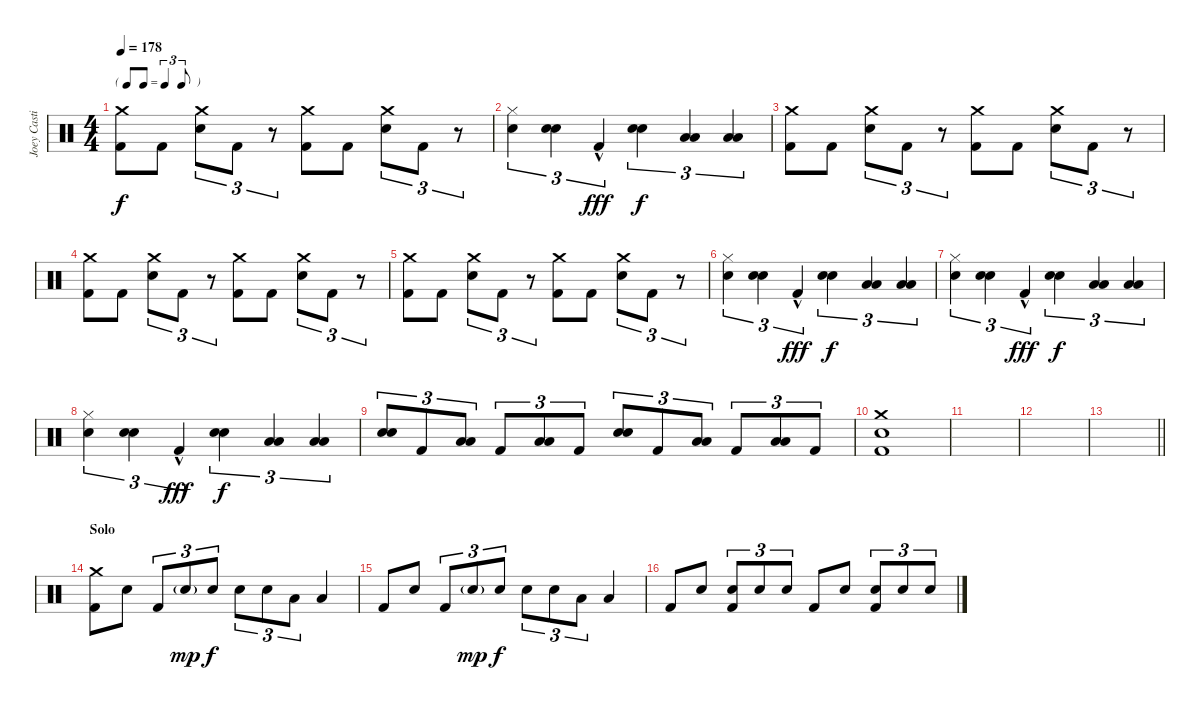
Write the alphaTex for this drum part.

\track ("Joey Castillo" "Joey Casti") {instrument percussion}
\staff {score}
\articulation defaults
\ts (4 4)
\tf triplet8th
\tempo 178
\clef neutral
\ks c
("Crash medium (hit)" "Kick (hit) 2").8{dy f} "Kick (hit) 2".8 ("Crash medium (hit)" "Snare (hit) 2").8{tu (3 2)} "Kick (hit) 2".8{tu (3 2)} r.8{tu (3 2)} ("Crash medium (hit)" "Kick (hit) 2").8 "Kick (hit) 2".8 ("Crash medium (hit)" "Snare (hit) 2").8{tu (3 2)} "Kick (hit) 2".8{tu (3 2)} r.8{tu (3 2)} |
("Hi-Hat (closed)" "Snare (hit) 2").4{tu (3 2)} ("Snare (hit) 2" "Snare (hit) 2").4{tu (3 2) bd 120} "Kick (hit) 2"{hac}.4{tu (3 2) dy fff} ("Snare (hit) 2" "Snare (hit) 2").4{tu (3 2) bd 120 dy f} ("Low Tom (hit)" "Low Floor Tom (hit)").4{tu (3 2)} ("Low Tom (hit)" "Low Floor Tom (hit)").4{tu (3 2)} |
("Crash medium (hit)" "Kick (hit) 2").8 "Kick (hit) 2".8 ("Crash medium (hit)" "Snare (hit) 2").8{tu (3 2)} "Kick (hit) 2".8{tu (3 2)} r.8{tu (3 2)} ("Crash medium (hit)" "Kick (hit) 2").8 "Kick (hit) 2".8 ("Crash medium (hit)" "Snare (hit) 2").8{tu (3 2)} "Kick (hit) 2".8{tu (3 2)} r.8{tu (3 2)} |
("Crash medium (hit)" "Kick (hit) 2").8 "Kick (hit) 2".8 ("Crash medium (hit)" "Snare (hit) 2").8{tu (3 2)} "Kick (hit) 2".8{tu (3 2)} r.8{tu (3 2)} ("Crash medium (hit)" "Kick (hit) 2").8 "Kick (hit) 2".8 ("Crash medium (hit)" "Snare (hit) 2").8{tu (3 2)} "Kick (hit) 2".8{tu (3 2)} r.8{tu (3 2)} |
("Crash medium (hit)" "Kick (hit) 2").8 "Kick (hit) 2".8 ("Crash medium (hit)" "Snare (hit) 2").8{tu (3 2)} "Kick (hit) 2".8{tu (3 2)} r.8{tu (3 2)} ("Crash medium (hit)" "Kick (hit) 2").8 "Kick (hit) 2".8 ("Crash medium (hit)" "Snare (hit) 2").8{tu (3 2)} "Kick (hit) 2".8{tu (3 2)} r.8{tu (3 2)} |
("Hi-Hat (closed)" "Snare (hit) 2").4{tu (3 2)} ("Snare (hit) 2" "Snare (hit) 2").4{tu (3 2) bd 120} "Kick (hit) 2"{hac}.4{tu (3 2) dy fff} ("Snare (hit) 2" "Snare (hit) 2").4{tu (3 2) bd 120 dy f} ("Low Tom (hit)" "Low Floor Tom (hit)").4{tu (3 2)} ("Low Tom (hit)" "Low Floor Tom (hit)").4{tu (3 2)} |
("Hi-Hat (closed)" "Snare (hit) 2").4{tu (3 2)} ("Snare (hit) 2" "Snare (hit) 2").4{tu (3 2) bd 120} "Kick (hit) 2"{hac}.4{tu (3 2) dy fff} ("Snare (hit) 2" "Snare (hit) 2").4{tu (3 2) bd 120 dy f} ("Low Tom (hit)" "Low Floor Tom (hit)").4{tu (3 2)} ("Low Tom (hit)" "Low Floor Tom (hit)").4{tu (3 2)} |
("Hi-Hat (closed)" "Snare (hit) 2").4{tu (3 2)} ("Snare (hit) 2" "Snare (hit) 2").4{tu (3 2) bd 120} "Kick (hit) 2"{hac}.4{tu (3 2) dy fff} ("Snare (hit) 2" "Snare (hit) 2").4{tu (3 2) bd 120 dy f} ("Low Tom (hit)" "Low Floor Tom (hit)").4{tu (3 2)} ("Low Tom (hit)" "Low Floor Tom (hit)").4{tu (3 2)} |
("Snare (hit) 2" "Snare (hit) 2").8{tu (3 2) bd 120} "Kick (hit) 2".8{tu (3 2)} ("Low Tom (hit)" "Low Floor Tom (hit)").8{tu (3 2)} "Kick (hit) 2".8{tu (3 2)} ("Low Tom (hit)" "Low Floor Tom (hit)").8{tu (3 2)} "Kick (hit) 2".8{tu (3 2)} ("Snare (hit) 2" "Snare (hit) 2").8{tu (3 2) bd 120} "Kick (hit) 2".8{tu (3 2)} ("Low Tom (hit)" "Low Floor Tom (hit)").8{tu (3 2)} "Kick (hit) 2".8{tu (3 2)} ("Low Tom (hit)" "Low Floor Tom (hit)").8{tu (3 2)} "Kick (hit) 2".8{tu (3 2)} |
("Crash medium (hit)" "Snare (hit) 2" "Kick (hit) 2").1 |
|
|
\barLineRight lightlight
|
\section ("" "Solo")
("Crash medium (hit)" "Kick (hit) 2").8 "Snare (hit) 2".8 "Kick (hit) 2".8{tu (3 2)} "Snare (hit) 2"{g}.8{tu (3 2) dy mp} "Snare (hit) 2".8{tu (3 2) dy f} "Snare (hit) 2".8{tu (3 2)} "Snare (hit) 2".8{tu (3 2)} "Low Tom (hit)".8{tu (3 2)} "Low Floor Tom (hit)".4 |
"Kick (hit) 2".8 "Snare (hit) 2".8 "Kick (hit) 2".8{tu (3 2)} "Snare (hit) 2"{g}.8{tu (3 2) dy mp} "Snare (hit) 2".8{tu (3 2) dy f} "Snare (hit) 2".8{tu (3 2)} "Snare (hit) 2".8{tu (3 2)} "Low Tom (hit)".8{tu (3 2)} "Low Floor Tom (hit)".4 |
"Kick (hit) 2".8 "Snare (hit) 2".8 ("Snare (hit) 2" "Kick (hit) 2").8{tu (3 2)} "Snare (hit) 2".8{tu (3 2)} "Snare (hit) 2".8{tu (3 2)} "Kick (hit) 2".8 "Snare (hit) 2".8 ("Snare (hit) 2" "Kick (hit) 2").8{tu (3 2)} "Snare (hit) 2".8{tu (3 2)} "Snare (hit) 2".8{tu (3 2)}
